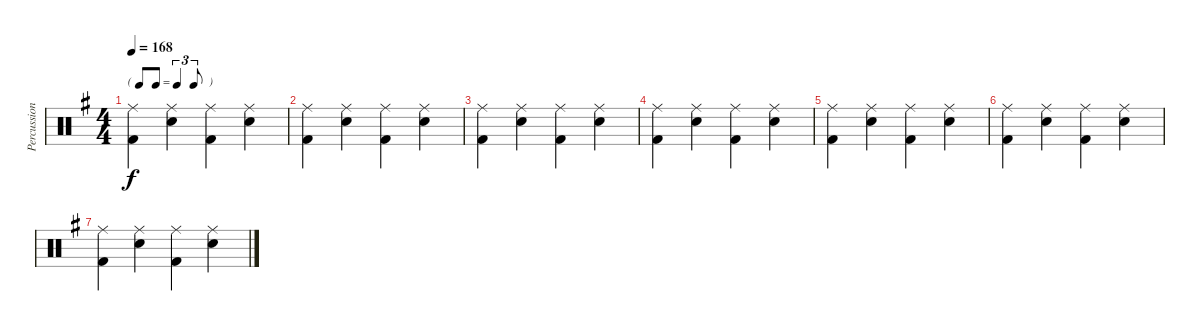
\track ("Percussion" "Percussion") {instrument percussion}
\staff {score}
\articulation defaults
\ts (4 4)
\tf triplet8th
\tempo 168
\clef neutral
\ks g
("Ride (middle)" "Kick (hit) 2").4{dy f} ("Ride (middle)" "Snare (hit) 2").4 ("Ride (middle)" "Kick (hit) 2").4 ("Ride (middle)" "Snare (hit) 2").4 |
("Ride (middle)" "Kick (hit) 2").4 ("Ride (middle)" "Snare (hit) 2").4 ("Ride (middle)" "Kick (hit) 2").4 ("Ride (middle)" "Snare (hit) 2").4 |
("Ride (middle)" "Kick (hit) 2").4 ("Ride (middle)" "Snare (hit) 2").4 ("Ride (middle)" "Kick (hit) 2").4 ("Ride (middle)" "Snare (hit) 2").4 |
("Ride (middle)" "Kick (hit) 2").4 ("Ride (middle)" "Snare (hit) 2").4 ("Ride (middle)" "Kick (hit) 2").4 ("Ride (middle)" "Snare (hit) 2").4 |
("Ride (middle)" "Kick (hit) 2").4 ("Ride (middle)" "Snare (hit) 2").4 ("Ride (middle)" "Kick (hit) 2").4 ("Ride (middle)" "Snare (hit) 2").4 |
("Ride (middle)" "Kick (hit) 2").4 ("Ride (middle)" "Snare (hit) 2").4 ("Ride (middle)" "Kick (hit) 2").4 ("Ride (middle)" "Snare (hit) 2").4 |
("Ride (middle)" "Kick (hit) 2").4 ("Ride (middle)" "Snare (hit) 2").4 ("Ride (middle)" "Kick (hit) 2").4 ("Ride (middle)" "Snare (hit) 2").4
